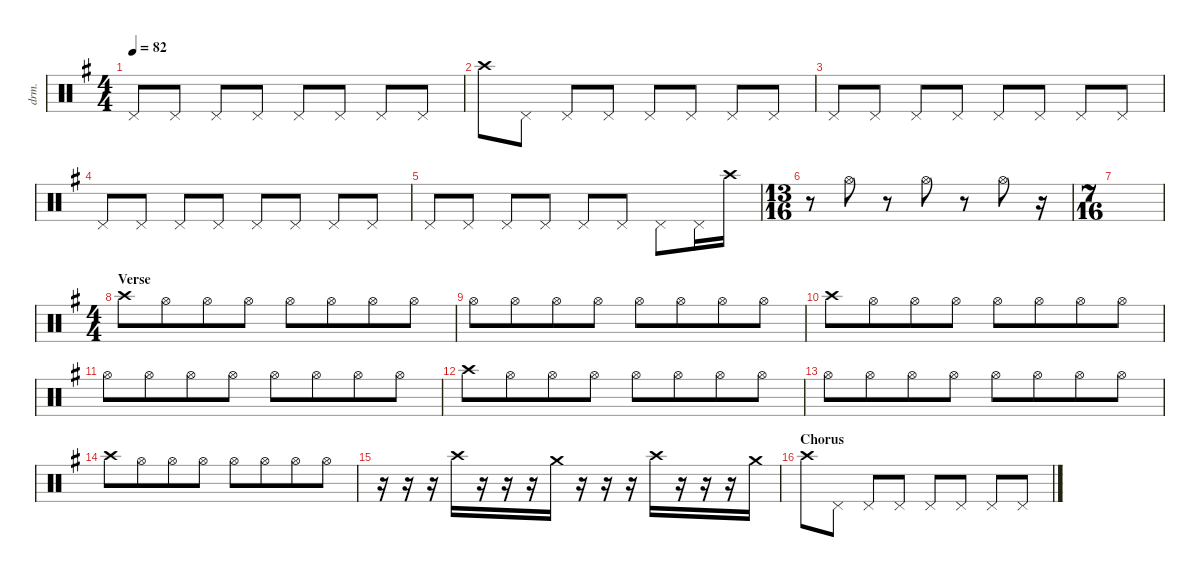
\defaultSystemsLayout 2
\hideDynamics
\bracketExtendMode nobrackets
\otherSystemsTrackNameOrientation horizontal
\track ("Drums (Cymbals)" "drm.") {instrument percussion}
\staff {score}
\articulation defaults
\ts (4 4)
\tempo 82
\clef neutral
\ks g "Pedal Hi-Hat (hit)".8{dy f} "Pedal Hi-Hat (hit)".8 "Pedal Hi-Hat (hit)".8 "Pedal Hi-Hat (hit)".8 "Pedal Hi-Hat (hit)".8 "Pedal Hi-Hat (hit)".8 "Pedal Hi-Hat (hit)".8 "Pedal Hi-Hat (hit)".8
|
"Crash high (hit)".8 "Pedal Hi-Hat (hit)".8 "Pedal Hi-Hat (hit)".8 "Pedal Hi-Hat (hit)".8 "Pedal Hi-Hat (hit)".8 "Pedal Hi-Hat (hit)".8 "Pedal Hi-Hat (hit)".8 "Pedal Hi-Hat (hit)".8 |
"Pedal Hi-Hat (hit)".8 "Pedal Hi-Hat (hit)".8 "Pedal Hi-Hat (hit)".8 "Pedal Hi-Hat (hit)".8 "Pedal Hi-Hat (hit)".8 "Pedal Hi-Hat (hit)".8 "Pedal Hi-Hat (hit)".8 "Pedal Hi-Hat (hit)".8 |
"Pedal Hi-Hat (hit)".8 "Pedal Hi-Hat (hit)".8 "Pedal Hi-Hat (hit)".8 "Pedal Hi-Hat (hit)".8 "Pedal Hi-Hat (hit)".8 "Pedal Hi-Hat (hit)".8 "Pedal Hi-Hat (hit)".8 "Pedal Hi-Hat (hit)".8 |
"Pedal Hi-Hat (hit)".8 "Pedal Hi-Hat (hit)".8 "Pedal Hi-Hat (hit)".8 "Pedal Hi-Hat (hit)".8 "Pedal Hi-Hat (hit)".8 "Pedal Hi-Hat (hit)".8 "Pedal Hi-Hat (hit)".8 "Pedal Hi-Hat (hit)".16 "Crash high (hit)".16 |
\ts (13 16)
\beaming (16 3 3 3 3 1)
r.8 "Hi-Hat (open)".8{dy mf} r.8 "Hi-Hat (open)".8 r.8 "Hi-Hat (open)".8 r.16 |
\ts (7 16)
\beaming (16 7)
|
\ts (4 4)
\beaming (8 4 4)
\section ("" "Verse")
"Crash high (hit)".8{dy f} "Hi-Hat (open)".8 "Hi-Hat (open)".8 "Hi-Hat (open)".8 "Hi-Hat (open)".8 "Hi-Hat (open)".8 "Hi-Hat (open)".8 "Hi-Hat (open)".8 |
"Hi-Hat (open)".8 "Hi-Hat (open)".8 "Hi-Hat (open)".8 "Hi-Hat (open)".8 "Hi-Hat (open)".8 "Hi-Hat (open)".8 "Hi-Hat (open)".8 "Hi-Hat (open)".8 |
"Crash high (hit)".8 "Hi-Hat (open)".8 "Hi-Hat (open)".8 "Hi-Hat (open)".8 "Hi-Hat (open)".8 "Hi-Hat (open)".8 "Hi-Hat (open)".8 "Hi-Hat (open)".8 |
"Hi-Hat (open)".8 "Hi-Hat (open)".8 "Hi-Hat (open)".8 "Hi-Hat (open)".8 "Hi-Hat (open)".8 "Hi-Hat (open)".8 "Hi-Hat (open)".8 "Hi-Hat (open)".8 |
"Crash high (hit)".8 "Hi-Hat (open)".8 "Hi-Hat (open)".8 "Hi-Hat (open)".8 "Hi-Hat (open)".8 "Hi-Hat (open)".8 "Hi-Hat (open)".8 "Hi-Hat (open)".8 |
"Hi-Hat (open)".8 "Hi-Hat (open)".8 "Hi-Hat (open)".8 "Hi-Hat (open)".8 "Hi-Hat (open)".8 "Hi-Hat (open)".8 "Hi-Hat (open)".8 "Hi-Hat (open)".8 |
"Crash high (hit)".8 "Hi-Hat (open)".8 "Hi-Hat (open)".8 "Hi-Hat (open)".8 "Hi-Hat (open)".8 "Hi-Hat (open)".8 "Hi-Hat (open)".8 "Hi-Hat (open)".8 |
r.16 r.16 r.16 "Crash high (hit)".16{dy mf} r.16 r.16 r.16 "Crash medium (hit)".16 r.16 r.16 r.16 "Crash high (hit)".16 r.16 r.16 r.16 "Crash medium (hit)".16 |
\beaming (8 2 2 2 2)
\section ("" "Chorus")
"Crash high (hit)".8{dy f} "Pedal Hi-Hat (hit)".8 "Pedal Hi-Hat (hit)".8 "Pedal Hi-Hat (hit)".8 "Pedal Hi-Hat (hit)".8 "Pedal Hi-Hat (hit)".8 "Pedal Hi-Hat (hit)".8 "Pedal Hi-Hat (hit)".8
